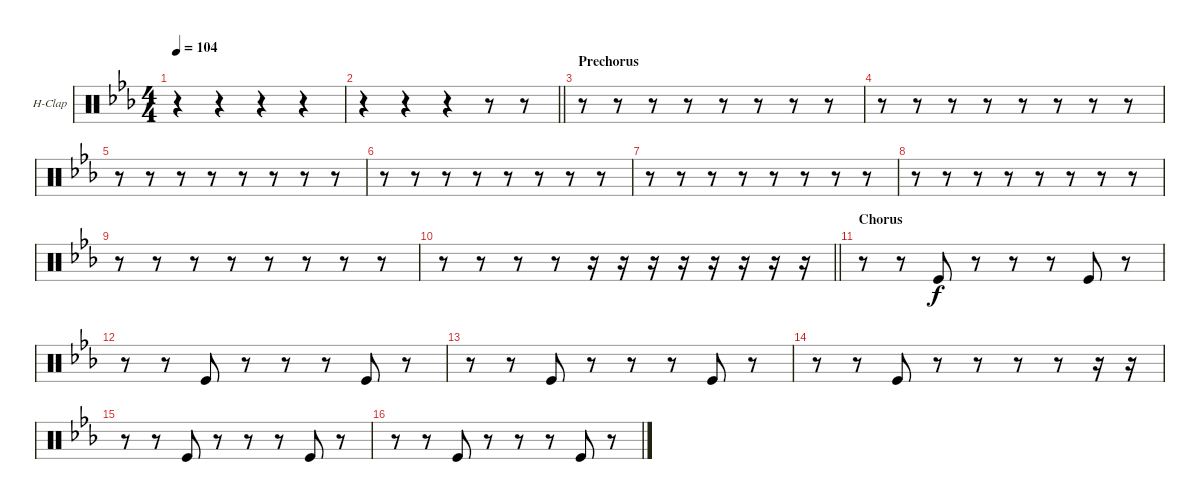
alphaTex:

\bracketExtendMode groupsimilarinstruments
\firstSystemTrackNameOrientation horizontal
\otherSystemsTrackNameOrientation horizontal
\track ("Hand Clap" "H-Clap") {instrument percussion}
\staff {score}
\articulation defaults
\ts (4 4)
\tempo 104
\clef neutral
\ks eb
r.4{dy f} r.4 r.4 r.4 |
\barLineRight lightlight
r.4 r.4 r.4 r.8 r.8 |
\section ("" "Prechorus")
r.8 r.8 r.8 r.8 r.8 r.8 r.8 r.8 |
r.8 r.8 r.8 r.8 r.8 r.8 r.8 r.8 |
r.8 r.8 r.8 r.8 r.8 r.8 r.8 r.8 |
r.8 r.8 r.8 r.8 r.8 r.8 r.8 r.8 |
r.8 r.8 r.8 r.8 r.8 r.8 r.8 r.8 |
r.8 r.8 r.8 r.8 r.8 r.8 r.8 r.8 |
r.8 r.8 r.8 r.8 r.8 r.8 r.8 r.8 |
\barLineRight lightlight
r.8 r.8 r.8 r.8 r.16 r.16 r.16 r.16 r.16 r.16 r.16 r.16 |
\section ("" "Chorus")
r.8 r.8 "Kick (hit)".8 r.8 r.8 r.8 "Kick (hit)".8 r.8 |
r.8 r.8 "Kick (hit)".8 r.8 r.8 r.8 "Kick (hit)".8 r.8 |
r.8 r.8 "Kick (hit)".8 r.8 r.8 r.8 "Kick (hit)".8 r.8 |
r.8 r.8 "Kick (hit)".8 r.8 r.8 r.8 r.8 r.16 r.16 |
r.8 r.8 "Kick (hit)".8 r.8 r.8 r.8 "Kick (hit)".8 r.8 |
r.8 r.8 "Kick (hit)".8 r.8 r.8 r.8 "Kick (hit)".8 r.8
